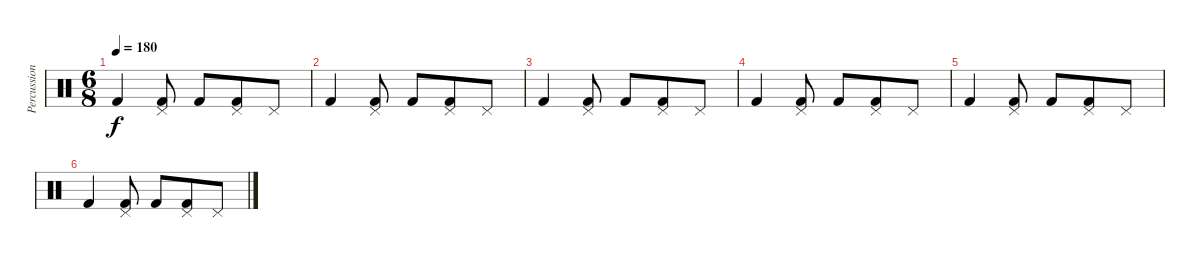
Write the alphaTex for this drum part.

\track ("Percussion" "Percussion") {instrument percussion}
\staff {score}
\articulation defaults
\ts (6 8)
\tempo 180
\clef neutral
\ks c "Kick (hit) 2".4{dy f}
("Kick (hit) 2" "Pedal Hi-Hat (hit)").8 "Kick (hit) 2".8 ("Kick (hit) 2" "Pedal Hi-Hat (hit)").8 "Pedal Hi-Hat (hit)".8 |
"Kick (hit) 2".4 ("Kick (hit) 2" "Pedal Hi-Hat (hit)").8 "Kick (hit) 2".8 ("Kick (hit) 2" "Pedal Hi-Hat (hit)").8 "Pedal Hi-Hat (hit)".8 |
"Kick (hit) 2".4 ("Kick (hit) 2" "Pedal Hi-Hat (hit)").8 "Kick (hit) 2".8 ("Kick (hit) 2" "Pedal Hi-Hat (hit)").8 "Pedal Hi-Hat (hit)".8 |
"Kick (hit) 2".4 ("Kick (hit) 2" "Pedal Hi-Hat (hit)").8 "Kick (hit) 2".8 ("Kick (hit) 2" "Pedal Hi-Hat (hit)").8 "Pedal Hi-Hat (hit)".8 |
"Kick (hit) 2".4 ("Kick (hit) 2" "Pedal Hi-Hat (hit)").8 "Kick (hit) 2".8 ("Kick (hit) 2" "Pedal Hi-Hat (hit)").8 "Pedal Hi-Hat (hit)".8 |
"Kick (hit) 2".4 ("Kick (hit) 2" "Pedal Hi-Hat (hit)").8 "Kick (hit) 2".8 ("Kick (hit) 2" "Pedal Hi-Hat (hit)").8 "Pedal Hi-Hat (hit)".8
